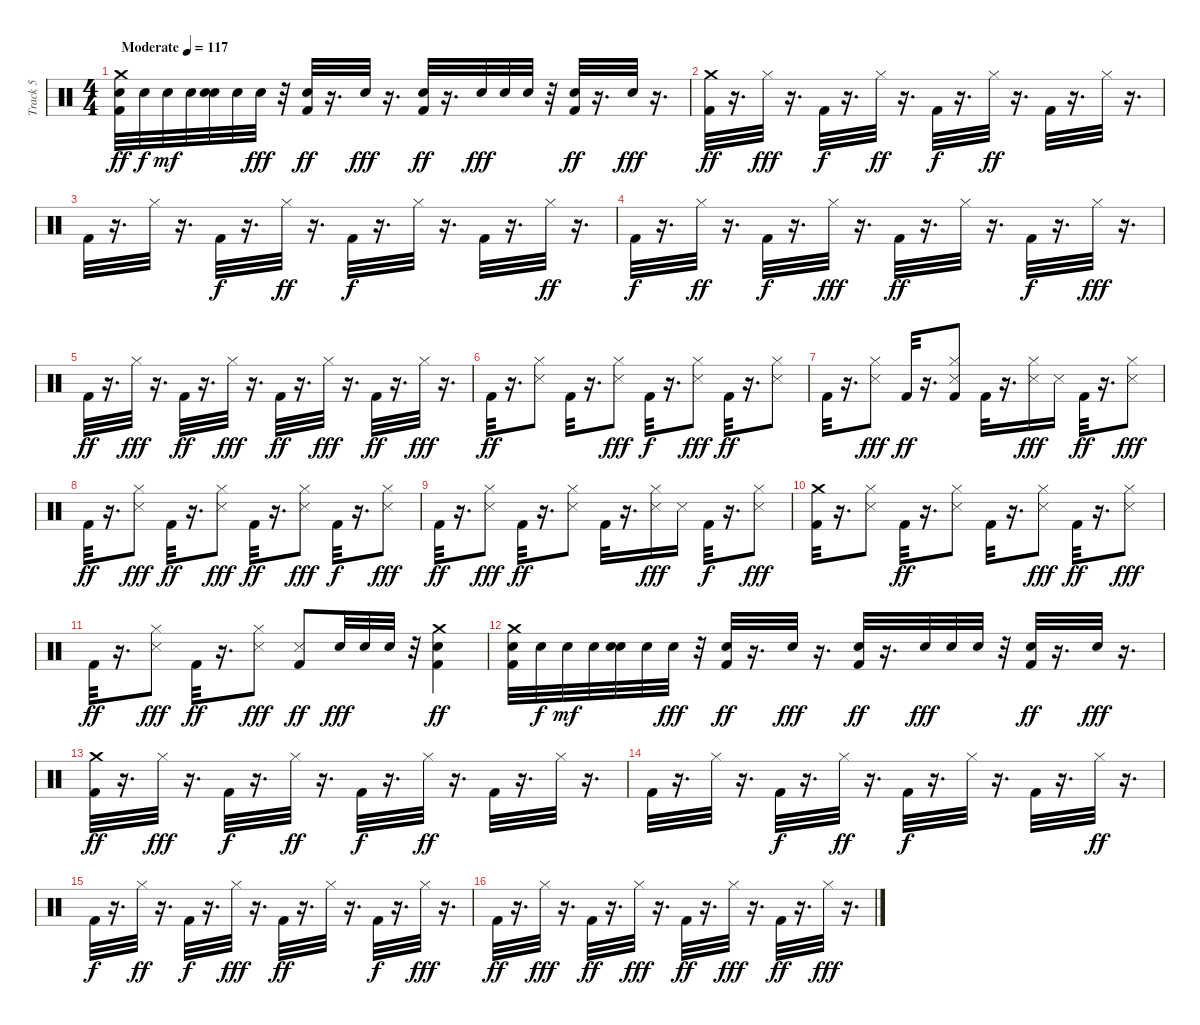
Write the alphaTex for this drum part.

\track ("Track 5" "Track 5") {instrument percussion}
\staff {score}
\articulation defaults
\ts (4 4)
\tempo (117 "Moderate")
\clef neutral
\ks c
("Crash medium (hit)" "Snare (hit) 2" "Kick (hit) 2").32{dy ff} "Snare (hit) 2".32{dy f} "Snare (hit) 2".32{dy mf} "Snare (hit) 2".32 ("Snare (hit) 2" "Snare (hit) 2").32 "Snare (hit) 2".32 "Snare (hit) 2".32{dy fff} r.32 ("Snare (hit) 2" "Kick (hit) 2").32{dy ff} r.16{d} "Snare (hit) 2".32{dy fff} r.16{d} ("Snare (hit) 2" "Kick (hit) 2").32{dy ff} r.16{d} "Snare (hit) 2".32{dy fff} "Snare (hit) 2".32 "Snare (hit) 2".32 r.32 ("Snare (hit) 2" "Kick (hit) 2").32{dy ff} r.16{d} "Snare (hit) 2".32{dy fff} r.16{d} |
("Kick (hit) 2" "Crash medium (hit)").32{dy ff} r.16{d} "Hi-Hat (closed)".32{dy fff} r.16{d} "Kick (hit) 2".32{dy f} r.16{d} "Hi-Hat (closed)".32{dy ff} r.16{d} "Kick (hit) 2".32{dy f} r.16{d} "Hi-Hat (closed)".32{dy ff} r.16{d} "Kick (hit) 2".32 r.16{d} "Hi-Hat (closed)".32 r.16{d} |
"Kick (hit) 2".32 r.16{d} "Hi-Hat (closed)".32 r.16{d} "Kick (hit) 2".32{dy f} r.16{d} "Hi-Hat (closed)".32{dy ff} r.16{d} "Kick (hit) 2".32{dy f} r.16{d} "Hi-Hat (closed)".32 r.16{d} "Kick (hit) 2".32 r.16{d} "Hi-Hat (closed)".32{dy ff} r.16{d} |
"Kick (hit) 2".32{dy f} r.16{d} "Hi-Hat (closed)".32{dy ff} r.16{d} "Kick (hit) 2".32{dy f} r.16{d} "Hi-Hat (closed)".32{dy fff} r.16{d} "Kick (hit) 2".32{dy ff} r.16{d} "Hi-Hat (closed)".32 r.16{d} "Kick (hit) 2".32{dy f} r.16{d} "Hi-Hat (closed)".32{dy fff} r.16{d} |
"Kick (hit) 2".32{dy ff} r.16{d} "Hi-Hat (closed)".32{dy fff} r.16{d} "Kick (hit) 2".32{dy ff} r.16{d} "Hi-Hat (closed)".32{dy fff} r.16{d} "Kick (hit) 2".32{dy ff} r.16{d} "Hi-Hat (closed)".32{dy fff} r.16{d} "Kick (hit) 2".32{dy ff} r.16{d} "Hi-Hat (closed)".32{dy fff} r.16{d} |
"Kick (hit) 2".32{dy ff} r.16{d} ("Snare (side stick) 3" "Hi-Hat (closed)").8 "Kick (hit) 2".32 r.16{d} ("Snare (side stick) 3" "Hi-Hat (closed)").8{dy fff} "Kick (hit) 2".32{dy f} r.16{d} ("Snare (side stick) 3" "Hi-Hat (closed)").8{dy fff} "Kick (hit) 2".32{dy ff} r.16{d} ("Snare (side stick) 3" "Hi-Hat (closed)").8 |
"Kick (hit) 2".32 r.16{d} ("Snare (side stick) 3" "Hi-Hat (closed)").8{dy fff} "Kick (hit) 2".32{dy ff} r.16{d} ("Hi-Hat (closed)" "Snare (side stick) 3" "Kick (hit) 2").8 "Kick (hit) 2".32 r.16{d} ("Snare (side stick) 3" "Hi-Hat (closed)").16{dy fff} "Snare (side stick) 3".16 "Kick (hit) 2".32{dy ff} r.16{d} ("Snare (side stick) 3" "Hi-Hat (closed)").8{dy fff} |
"Kick (hit) 2".32{dy ff} r.16{d} ("Snare (side stick) 3" "Hi-Hat (closed)").8{dy fff} "Kick (hit) 2".32{dy ff} r.16{d} ("Snare (side stick) 3" "Hi-Hat (closed)").8{dy fff} "Kick (hit) 2".32{dy ff} r.16{d} ("Hi-Hat (closed)" "Snare (side stick) 3").8{dy fff} "Kick (hit) 2".32{dy f} r.16{d} ("Snare (side stick) 3" "Hi-Hat (closed)").8{dy fff} |
"Kick (hit) 2".32{dy ff} r.16{d} ("Snare (side stick) 3" "Hi-Hat (closed)").8{dy fff} "Kick (hit) 2".32{dy ff} r.16{d} ("Snare (side stick) 3" "Hi-Hat (closed)").8 "Kick (hit) 2".32 r.16{d} ("Snare (side stick) 3" "Hi-Hat (closed)").16{dy fff} "Snare (side stick) 3".16 "Kick (hit) 2".32{dy f} r.16{d} ("Hi-Hat (closed)" "Snare (side stick) 3").8{dy fff} |
("Crash medium (hit)" "Kick (hit) 2").32 r.16{d} ("Snare (side stick) 3" "Hi-Hat (closed)").8{volume 14} "Kick (hit) 2".32{dy ff} r.16{d} ("Snare (side stick) 3" "Hi-Hat (closed)").8 "Kick (hit) 2".32 r.16{d} ("Hi-Hat (closed)" "Snare (side stick) 3").8{dy fff} "Kick (hit) 2".32{dy ff} r.16{d} ("Hi-Hat (closed)" "Snare (side stick) 3").8{dy fff} |
"Kick (hit) 2".32{dy ff} r.16{d} ("Snare (side stick) 3" "Hi-Hat (closed)").8{dy fff} "Kick (hit) 2".32{dy ff} r.16{d} ("Hi-Hat (closed)" "Snare (side stick) 3").8{dy fff} ("Snare (side stick) 3" "Kick (hit) 2").8{dy ff} "Snare (hit) 2".32{dy fff} "Snare (hit) 2".32 "Snare (hit) 2".32 r.32 ("Snare (hit) 2" "Crash medium (hit)" "Kick (hit) 2").4{dy ff} |
("Crash medium (hit)" "Snare (hit) 2" "Kick (hit) 2").32 "Snare (hit) 2".32{dy f} "Snare (hit) 2".32{dy mf} "Snare (hit) 2".32 ("Snare (hit) 2" "Snare (hit) 2").32 "Snare (hit) 2".32 "Snare (hit) 2".32{dy fff} r.32 ("Snare (hit) 2" "Kick (hit) 2").32{dy ff} r.16{d} "Snare (hit) 2".32{dy fff} r.16{d} ("Snare (hit) 2" "Kick (hit) 2").32{dy ff} r.16{d} "Snare (hit) 2".32{dy fff} "Snare (hit) 2".32 "Snare (hit) 2".32 r.32 ("Snare (hit) 2" "Kick (hit) 2").32{dy ff} r.16{d} "Snare (hit) 2".32{dy fff} r.16{d} |
("Kick (hit) 2" "Crash medium (hit)").32{dy ff} r.16{d} "Hi-Hat (closed)".32{dy fff} r.16{d} "Kick (hit) 2".32{dy f} r.16{d} "Hi-Hat (closed)".32{dy ff} r.16{d} "Kick (hit) 2".32{dy f} r.16{d} "Hi-Hat (closed)".32{dy ff} r.16{d} "Kick (hit) 2".32 r.16{d} "Hi-Hat (closed)".32 r.16{d} |
"Kick (hit) 2".32 r.16{d} "Hi-Hat (closed)".32 r.16{d} "Kick (hit) 2".32{dy f} r.16{d} "Hi-Hat (closed)".32{dy ff} r.16{d} "Kick (hit) 2".32{dy f} r.16{d} "Hi-Hat (closed)".32 r.16{d} "Kick (hit) 2".32 r.16{d} "Hi-Hat (closed)".32{dy ff} r.16{d} |
"Kick (hit) 2".32{dy f} r.16{d} "Hi-Hat (closed)".32{dy ff} r.16{d} "Kick (hit) 2".32{dy f} r.16{d} "Hi-Hat (closed)".32{dy fff} r.16{d} "Kick (hit) 2".32{dy ff} r.16{d} "Hi-Hat (closed)".32 r.16{d} "Kick (hit) 2".32{dy f} r.16{d} "Hi-Hat (closed)".32{dy fff} r.16{d} |
"Kick (hit) 2".32{dy ff} r.16{d} "Hi-Hat (closed)".32{dy fff} r.16{d} "Kick (hit) 2".32{dy ff} r.16{d} "Hi-Hat (closed)".32{dy fff} r.16{d} "Kick (hit) 2".32{dy ff} r.16{d} "Hi-Hat (closed)".32{dy fff} r.16{d} "Kick (hit) 2".32{dy ff} r.16{d} "Hi-Hat (closed)".32{dy fff} r.16{d}
